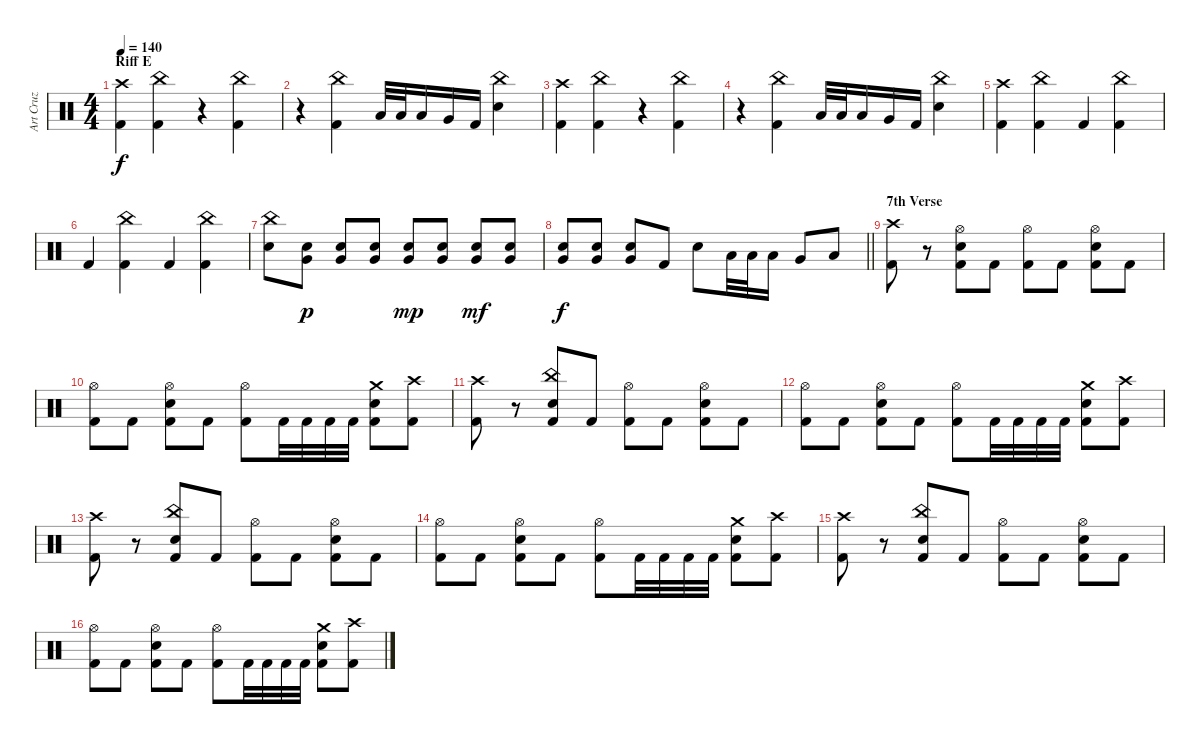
\track ("Art Cruz" "Art Cruz") {instrument percussion}
\staff {score}
\articulation defaults
\ts (4 4)
\section ("" "Riff E")
\tempo 140
\clef neutral
\ks c
("Crash high (hit)" "Kick (hit) 2").4{dy f} ("China (hit)" "Kick (hit) 2").4 r.4 ("China (hit)" "Kick (hit) 2").4 |
r.4 ("China (hit)" "Kick (hit) 2").4 "Low Tom (hit)".32 "Low Tom (hit)".32 "Low Tom (hit)".16 "Very Low Tom (hit)".16 "Kick (hit) 2".16 ("China (hit)" "Snare (hit) 2").4 |
("Crash high (hit)" "Kick (hit) 2").4 ("China (hit)" "Kick (hit) 2").4 r.4 ("China (hit)" "Kick (hit) 2").4 |
r.4 ("China (hit)" "Kick (hit) 2").4 "Low Tom (hit)".32 "Low Tom (hit)".32 "Low Tom (hit)".16 "Very Low Tom (hit)".16 "Kick (hit) 2".16 ("China (hit)" "Snare (hit) 2").4 |
("Crash high (hit)" "Kick (hit) 2").4 ("China (hit)" "Kick (hit) 2").4 "Kick (hit) 2".4 ("China (hit)" "Kick (hit) 2").4 |
"Kick (hit) 2".4 ("China (hit)" "Kick (hit) 2").4 "Kick (hit) 2".4 ("China (hit)" "Kick (hit) 2").4 |
("China (hit)" "Snare (hit) 2").8 ("Very Low Tom (hit)" "Snare (hit) 2").8{dy p} ("Very Low Tom (hit)" "Snare (hit) 2").8 ("Very Low Tom (hit)" "Snare (hit) 2").8 ("Very Low Tom (hit)" "Snare (hit) 2").8{dy mp} ("Very Low Tom (hit)" "Snare (hit) 2").8 ("Very Low Tom (hit)" "Snare (hit) 2").8{dy mf} ("Very Low Tom (hit)" "Snare (hit) 2").8 |
\barLineRight lightlight
("Very Low Tom (hit)" "Snare (hit) 2").8{dy f} ("Very Low Tom (hit)" "Snare (hit) 2").8 ("Very Low Tom (hit)" "Snare (hit) 2").8 "Kick (hit) 2".8 "Snare (hit) 2".8 "Low Tom (hit)".32 "Low Tom (hit)".32 "Low Tom (hit)".16 "Very Low Tom (hit)".8 "Low Floor Tom (hit)".8 |
\section ("" "7th Verse")
("Crash high (hit)" "Kick (hit) 2").8 r.8 ("Hi-Hat (open)" "Snare (hit) 2" "Kick (hit) 2").8 "Kick (hit) 2".8 ("Hi-Hat (open)" "Kick (hit) 2").8 "Kick (hit) 2".8 ("Hi-Hat (open)" "Snare (hit) 2" "Kick (hit) 2").8 "Kick (hit) 2".8 |
("Hi-Hat (open)" "Kick (hit) 2").8 "Kick (hit) 2".8 ("Hi-Hat (open)" "Snare (hit) 2" "Kick (hit) 2").8 "Kick (hit) 2".8 ("Hi-Hat (open)" "Kick (hit) 2").8 "Kick (hit) 2".32 "Kick (hit) 2".32 "Kick (hit) 2".32 "Kick (hit) 2".32 ("Crash medium (hit)" "Snare (hit) 2" "Kick (hit) 2").8 ("Crash high (hit)" "Kick (hit) 2").8 |
("Crash high (hit)" "Kick (hit) 2").8 r.8 ("China (hit)" "Snare (hit) 2" "Kick (hit) 2").8 "Kick (hit) 2".8 ("Hi-Hat (open)" "Kick (hit) 2").8 "Kick (hit) 2".8 ("Hi-Hat (open)" "Snare (hit) 2" "Kick (hit) 2").8 "Kick (hit) 2".8 |
("Hi-Hat (open)" "Kick (hit) 2").8 "Kick (hit) 2".8 ("Hi-Hat (open)" "Snare (hit) 2" "Kick (hit) 2").8 "Kick (hit) 2".8 ("Hi-Hat (open)" "Kick (hit) 2").8 "Kick (hit) 2".32 "Kick (hit) 2".32 "Kick (hit) 2".32 "Kick (hit) 2".32 ("Crash medium (hit)" "Snare (hit) 2" "Kick (hit) 2").8 ("Crash high (hit)" "Kick (hit) 2").8 |
("Crash high (hit)" "Kick (hit) 2").8 r.8 ("China (hit)" "Snare (hit) 2" "Kick (hit) 2").8 "Kick (hit) 2".8 ("Hi-Hat (open)" "Kick (hit) 2").8 "Kick (hit) 2".8 ("Hi-Hat (open)" "Snare (hit) 2" "Kick (hit) 2").8 "Kick (hit) 2".8 |
("Hi-Hat (open)" "Kick (hit) 2").8 "Kick (hit) 2".8 ("Hi-Hat (open)" "Snare (hit) 2" "Kick (hit) 2").8 "Kick (hit) 2".8 ("Hi-Hat (open)" "Kick (hit) 2").8 "Kick (hit) 2".32 "Kick (hit) 2".32 "Kick (hit) 2".32 "Kick (hit) 2".32 ("Crash medium (hit)" "Snare (hit) 2" "Kick (hit) 2").8 ("Crash high (hit)" "Kick (hit) 2").8 |
("Crash high (hit)" "Kick (hit) 2").8 r.8 ("China (hit)" "Snare (hit) 2" "Kick (hit) 2").8 "Kick (hit) 2".8 ("Hi-Hat (open)" "Kick (hit) 2").8 "Kick (hit) 2".8 ("Hi-Hat (open)" "Snare (hit) 2" "Kick (hit) 2").8 "Kick (hit) 2".8 |
("Hi-Hat (open)" "Kick (hit) 2").8 "Kick (hit) 2".8 ("Hi-Hat (open)" "Snare (hit) 2" "Kick (hit) 2").8 "Kick (hit) 2".8 ("Hi-Hat (open)" "Kick (hit) 2").8 "Kick (hit) 2".32 "Kick (hit) 2".32 "Kick (hit) 2".32 "Kick (hit) 2".32 ("Crash medium (hit)" "Snare (hit) 2" "Kick (hit) 2").8 ("Crash high (hit)" "Kick (hit) 2").8
